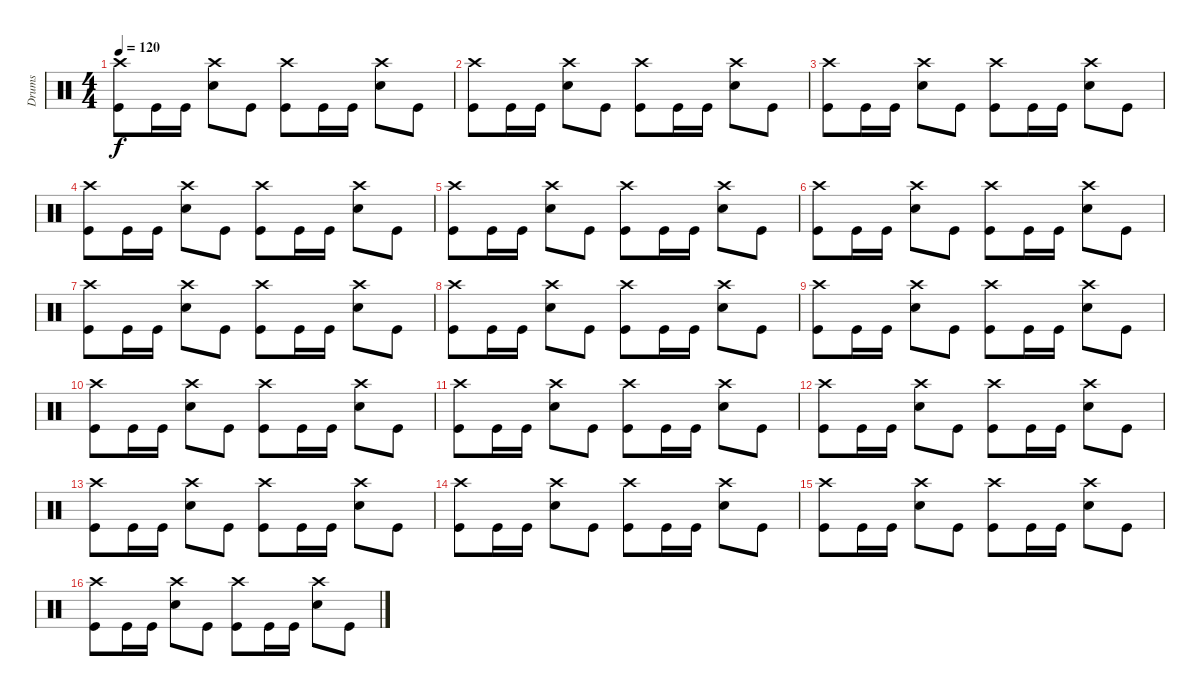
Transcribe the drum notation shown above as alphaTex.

\track ("Drums" "Drums") {instrument percussion}
\staff {score}
\articulation defaults
\ts (4 4)
\tempo 120
\clef neutral
\ks c
("Crash high (hit)" "Kick (hit)").8{dy f} "Kick (hit)".16 "Kick (hit)".16 ("Crash high (hit)" "Snare (hit) 2").8 "Kick (hit)".8 ("Crash high (hit)" "Kick (hit)").8 "Kick (hit)".16 "Kick (hit)".16 ("Crash high (hit)" "Snare (hit) 2").8 "Kick (hit)".8 |
("Crash high (hit)" "Kick (hit)").8 "Kick (hit)".16 "Kick (hit)".16 ("Crash high (hit)" "Snare (hit) 2").8 "Kick (hit)".8 ("Crash high (hit)" "Kick (hit)").8 "Kick (hit)".16 "Kick (hit)".16 ("Crash high (hit)" "Snare (hit) 2").8 "Kick (hit)".8 |
("Crash high (hit)" "Kick (hit)").8 "Kick (hit)".16 "Kick (hit)".16 ("Crash high (hit)" "Snare (hit) 2").8 "Kick (hit)".8 ("Crash high (hit)" "Kick (hit)").8 "Kick (hit)".16 "Kick (hit)".16 ("Crash high (hit)" "Snare (hit) 2").8 "Kick (hit)".8 |
("Crash high (hit)" "Kick (hit)").8 "Kick (hit)".16 "Kick (hit)".16 ("Crash high (hit)" "Snare (hit) 2").8 "Kick (hit)".8 ("Crash high (hit)" "Kick (hit)").8 "Kick (hit)".16 "Kick (hit)".16 ("Crash high (hit)" "Snare (hit) 2").8 "Kick (hit)".8 |
("Crash high (hit)" "Kick (hit)").8 "Kick (hit)".16 "Kick (hit)".16 ("Crash high (hit)" "Snare (hit) 2").8 "Kick (hit)".8 ("Crash high (hit)" "Kick (hit)").8 "Kick (hit)".16 "Kick (hit)".16 ("Crash high (hit)" "Snare (hit) 2").8 "Kick (hit)".8 |
("Crash high (hit)" "Kick (hit)").8 "Kick (hit)".16 "Kick (hit)".16 ("Crash high (hit)" "Snare (hit) 2").8 "Kick (hit)".8 ("Crash high (hit)" "Kick (hit)").8 "Kick (hit)".16 "Kick (hit)".16 ("Crash high (hit)" "Snare (hit) 2").8 "Kick (hit)".8 |
("Crash high (hit)" "Kick (hit)").8 "Kick (hit)".16 "Kick (hit)".16 ("Crash high (hit)" "Snare (hit) 2").8 "Kick (hit)".8 ("Crash high (hit)" "Kick (hit)").8 "Kick (hit)".16 "Kick (hit)".16 ("Crash high (hit)" "Snare (hit) 2").8 "Kick (hit)".8 |
("Crash high (hit)" "Kick (hit)").8 "Kick (hit)".16 "Kick (hit)".16 ("Crash high (hit)" "Snare (hit) 2").8 "Kick (hit)".8 ("Crash high (hit)" "Kick (hit)").8 "Kick (hit)".16 "Kick (hit)".16 ("Crash high (hit)" "Snare (hit) 2").8 "Kick (hit)".8 |
("Crash high (hit)" "Kick (hit)").8 "Kick (hit)".16 "Kick (hit)".16 ("Crash high (hit)" "Snare (hit) 2").8 "Kick (hit)".8 ("Crash high (hit)" "Kick (hit)").8 "Kick (hit)".16 "Kick (hit)".16 ("Crash high (hit)" "Snare (hit) 2").8 "Kick (hit)".8 |
("Crash high (hit)" "Kick (hit)").8 "Kick (hit)".16 "Kick (hit)".16 ("Crash high (hit)" "Snare (hit) 2").8 "Kick (hit)".8 ("Crash high (hit)" "Kick (hit)").8 "Kick (hit)".16 "Kick (hit)".16 ("Crash high (hit)" "Snare (hit) 2").8 "Kick (hit)".8 |
("Crash high (hit)" "Kick (hit)").8 "Kick (hit)".16 "Kick (hit)".16 ("Crash high (hit)" "Snare (hit) 2").8 "Kick (hit)".8 ("Crash high (hit)" "Kick (hit)").8 "Kick (hit)".16 "Kick (hit)".16 ("Crash high (hit)" "Snare (hit) 2").8 "Kick (hit)".8 |
("Crash high (hit)" "Kick (hit)").8 "Kick (hit)".16 "Kick (hit)".16 ("Crash high (hit)" "Snare (hit) 2").8 "Kick (hit)".8 ("Crash high (hit)" "Kick (hit)").8 "Kick (hit)".16 "Kick (hit)".16 ("Crash high (hit)" "Snare (hit) 2").8 "Kick (hit)".8 |
("Crash high (hit)" "Kick (hit)").8 "Kick (hit)".16 "Kick (hit)".16 ("Crash high (hit)" "Snare (hit) 2").8 "Kick (hit)".8 ("Crash high (hit)" "Kick (hit)").8 "Kick (hit)".16 "Kick (hit)".16 ("Crash high (hit)" "Snare (hit) 2").8 "Kick (hit)".8 |
("Crash high (hit)" "Kick (hit)").8 "Kick (hit)".16 "Kick (hit)".16 ("Crash high (hit)" "Snare (hit) 2").8 "Kick (hit)".8 ("Crash high (hit)" "Kick (hit)").8 "Kick (hit)".16 "Kick (hit)".16 ("Crash high (hit)" "Snare (hit) 2").8 "Kick (hit)".8 |
("Crash high (hit)" "Kick (hit)").8 "Kick (hit)".16 "Kick (hit)".16 ("Crash high (hit)" "Snare (hit) 2").8 "Kick (hit)".8 ("Crash high (hit)" "Kick (hit)").8 "Kick (hit)".16 "Kick (hit)".16 ("Crash high (hit)" "Snare (hit) 2").8 "Kick (hit)".8 |
("Crash high (hit)" "Kick (hit)").8 "Kick (hit)".16 "Kick (hit)".16 ("Crash high (hit)" "Snare (hit) 2").8 "Kick (hit)".8 ("Crash high (hit)" "Kick (hit)").8 "Kick (hit)".16 "Kick (hit)".16 ("Crash high (hit)" "Snare (hit) 2").8 "Kick (hit)".8
